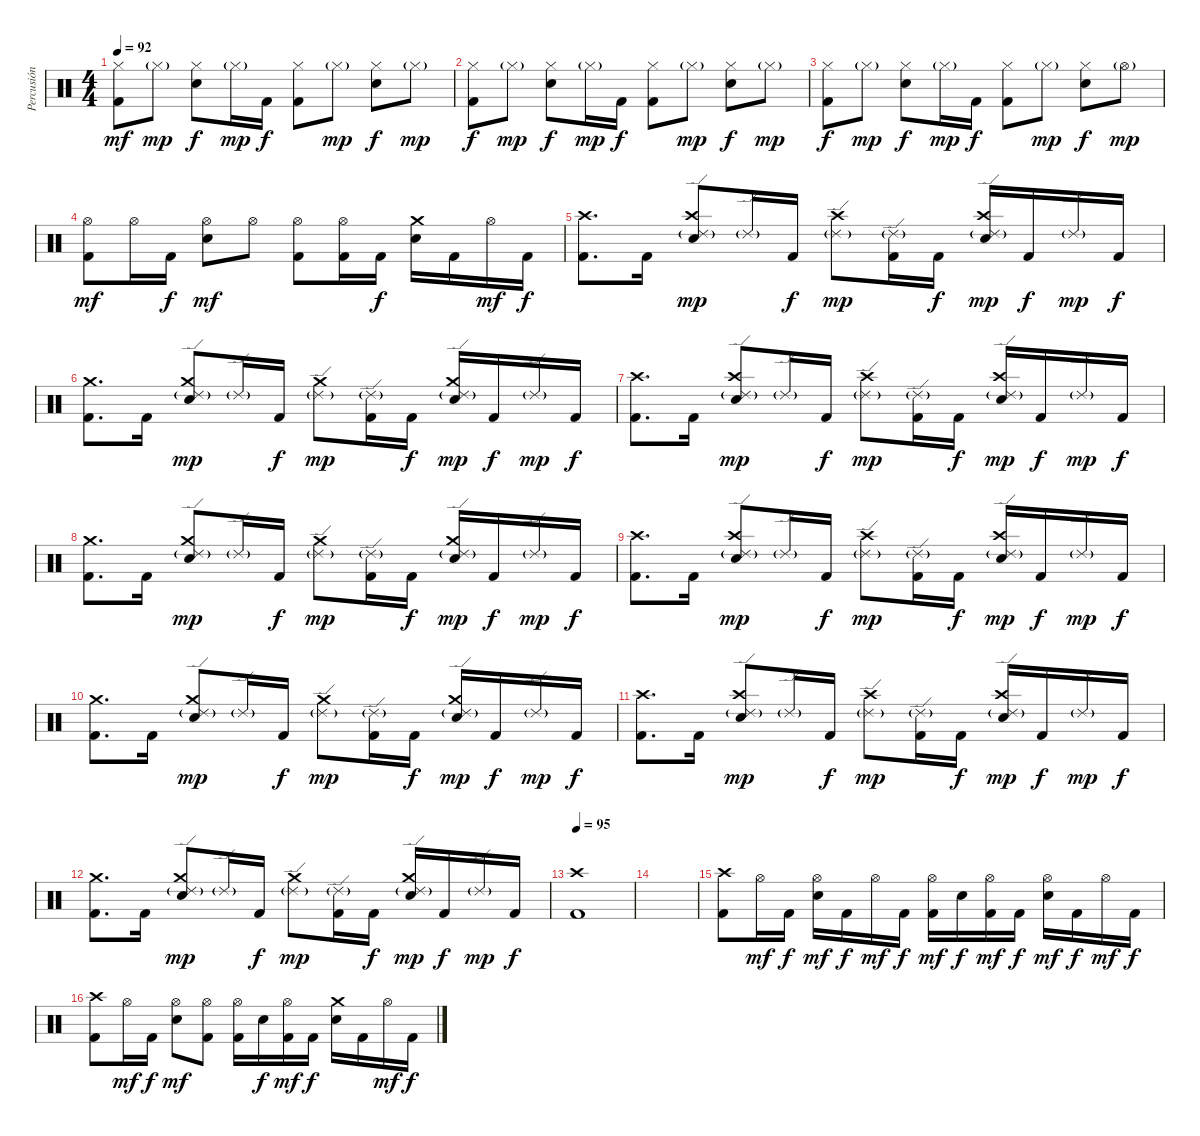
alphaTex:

\track ("Percusión" "Percusión") {instrument percussion}
\staff {score}
\articulation defaults
\ts (4 4)
\tempo 92
\clef neutral
\ks c
("Hi-Hat (closed)" "Kick (hit) 2").8{dy mf} "Hi-Hat (closed)"{g}.8{dy mp} ("Hi-Hat (closed)" "Snare (hit) 2").8{dy f} "Hi-Hat (closed)"{g}.16{dy mp} "Kick (hit) 2".16{dy f} ("Hi-Hat (closed)" "Kick (hit) 2").8 "Hi-Hat (closed)"{g}.8{dy mp} ("Hi-Hat (closed)" "Snare (hit) 2").8{dy f} "Hi-Hat (closed)"{g}.8{dy mp} |
("Hi-Hat (closed)" "Kick (hit) 2").8{dy f} "Hi-Hat (closed)"{g}.8{dy mp} ("Hi-Hat (closed)" "Snare (hit) 2").8{dy f} "Hi-Hat (closed)"{g}.16{dy mp} "Kick (hit) 2".16{dy f} ("Hi-Hat (closed)" "Kick (hit) 2").8 "Hi-Hat (closed)"{g}.8{dy mp} ("Hi-Hat (closed)" "Snare (hit) 2").8{dy f} "Hi-Hat (closed)"{g}.8{dy mp} |
("Hi-Hat (closed)" "Kick (hit) 2").8{dy f} "Hi-Hat (closed)"{g}.8{dy mp} ("Hi-Hat (closed)" "Snare (hit) 2").8{dy f} "Hi-Hat (closed)"{g}.16{dy mp} "Kick (hit) 2".16{dy f} ("Hi-Hat (closed)" "Kick (hit) 2").8 "Hi-Hat (closed)"{g}.8{dy mp} ("Hi-Hat (closed)" "Snare (hit) 2").8{dy f} "Hi-Hat (open)"{g}.8{dy mp} |
("Hi-Hat (open)" "Kick (hit) 2").8{dy mf} "Hi-Hat (open)".16 "Kick (hit) 2".16{dy f} ("Hi-Hat (open)" "Snare (hit) 2").8{dy mf} "Hi-Hat (open)".8 ("Hi-Hat (open)" "Kick (hit) 2").8 ("Hi-Hat (open)" "Kick (hit) 2").16 "Kick (hit) 2".16{dy f} ("Crash medium (hit)" "Snare (hit) 2").16 "Kick (hit) 2".16 "Hi-Hat (open)".16{dy mf} "Kick (hit) 2".16{dy f} |
("Crash high (hit)" "Kick (hit) 2").8{d} "Kick (hit) 2".16 ("Crash high (hit)" "Ride (edge) 2"{g} "Snare (hit) 2").8{dy mp} "Ride (edge) 2"{g}.16 "Kick (hit) 2".16{dy f} ("Crash high (hit)" "Ride (edge) 2"{g}).8{dy mp} ("Ride (edge) 2"{g} "Kick (hit) 2").16 "Kick (hit) 2".16{dy f} ("Crash high (hit)" "Ride (edge) 2"{g} "Snare (hit) 2").16{dy mp} "Kick (hit) 2".16{dy f} "Ride (edge) 2"{g}.16{dy mp} "Kick (hit) 2".16{dy f} |
("Crash medium (hit)" "Kick (hit) 2").8{d} "Kick (hit) 2".16 ("Crash medium (hit)" "Ride (edge) 2"{g} "Snare (hit) 2").8{dy mp} "Ride (edge) 2"{g}.16 "Kick (hit) 2".16{dy f} ("Crash medium (hit)" "Ride (edge) 2"{g}).8{dy mp} ("Ride (edge) 2"{g} "Kick (hit) 2").16 "Kick (hit) 2".16{dy f} ("Crash medium (hit)" "Ride (edge) 2"{g} "Snare (hit) 2").16{dy mp} "Kick (hit) 2".16{dy f} "Ride (edge) 2"{g}.16{dy mp} "Kick (hit) 2".16{dy f} |
("Crash high (hit)" "Kick (hit) 2").8{d} "Kick (hit) 2".16 ("Crash high (hit)" "Ride (edge) 2"{g} "Snare (hit) 2").8{dy mp} "Ride (edge) 2"{g}.16 "Kick (hit) 2".16{dy f} ("Crash high (hit)" "Ride (edge) 2"{g}).8{dy mp} ("Ride (edge) 2"{g} "Kick (hit) 2").16 "Kick (hit) 2".16{dy f} ("Crash high (hit)" "Ride (edge) 2"{g} "Snare (hit) 2").16{dy mp} "Kick (hit) 2".16{dy f} "Ride (edge) 2"{g}.16{dy mp} "Kick (hit) 2".16{dy f} |
("Crash medium (hit)" "Kick (hit) 2").8{d} "Kick (hit) 2".16 ("Crash medium (hit)" "Ride (edge) 2"{g} "Snare (hit) 2").8{dy mp} "Ride (edge) 2"{g}.16 "Kick (hit) 2".16{dy f} ("Crash medium (hit)" "Ride (edge) 2"{g}).8{dy mp} ("Ride (edge) 2"{g} "Kick (hit) 2").16 "Kick (hit) 2".16{dy f} ("Crash medium (hit)" "Ride (edge) 2"{g} "Snare (hit) 2").16{dy mp} "Kick (hit) 2".16{dy f} "Ride (edge) 2"{g}.16{dy mp} "Kick (hit) 2".16{dy f} |
("Crash high (hit)" "Kick (hit) 2").8{d} "Kick (hit) 2".16 ("Crash high (hit)" "Ride (edge) 2"{g} "Snare (hit) 2").8{dy mp} "Ride (edge) 2"{g}.16 "Kick (hit) 2".16{dy f} ("Crash high (hit)" "Ride (edge) 2"{g}).8{dy mp} ("Ride (edge) 2"{g} "Kick (hit) 2").16 "Kick (hit) 2".16{dy f} ("Crash high (hit)" "Ride (edge) 2"{g} "Snare (hit) 2").16{dy mp} "Kick (hit) 2".16{dy f} "Ride (edge) 2"{g}.16{dy mp} "Kick (hit) 2".16{dy f} |
("Crash medium (hit)" "Kick (hit) 2").8{d} "Kick (hit) 2".16 ("Crash medium (hit)" "Ride (edge) 2"{g} "Snare (hit) 2").8{dy mp} "Ride (edge) 2"{g}.16 "Kick (hit) 2".16{dy f} ("Crash medium (hit)" "Ride (edge) 2"{g}).8{dy mp} ("Ride (edge) 2"{g} "Kick (hit) 2").16 "Kick (hit) 2".16{dy f} ("Crash medium (hit)" "Ride (edge) 2"{g} "Snare (hit) 2").16{dy mp} "Kick (hit) 2".16{dy f} "Ride (edge) 2"{g}.16{dy mp} "Kick (hit) 2".16{dy f} |
("Crash high (hit)" "Kick (hit) 2").8{d} "Kick (hit) 2".16 ("Crash high (hit)" "Ride (edge) 2"{g} "Snare (hit) 2").8{dy mp} "Ride (edge) 2"{g}.16 "Kick (hit) 2".16{dy f} ("Crash high (hit)" "Ride (edge) 2"{g}).8{dy mp} ("Ride (edge) 2"{g} "Kick (hit) 2").16 "Kick (hit) 2".16{dy f} ("Crash high (hit)" "Ride (edge) 2"{g} "Snare (hit) 2").16{dy mp} "Kick (hit) 2".16{dy f} "Ride (edge) 2"{g}.16{dy mp} "Kick (hit) 2".16{dy f} |
("Crash medium (hit)" "Kick (hit) 2").8{d} "Kick (hit) 2".16 ("Crash medium (hit)" "Ride (edge) 2"{g} "Snare (hit) 2").8{dy mp} "Ride (edge) 2"{g}.16 "Kick (hit) 2".16{dy f} ("Crash medium (hit)" "Ride (edge) 2"{g}).8{dy mp} ("Ride (edge) 2"{g} "Kick (hit) 2").16 "Kick (hit) 2".16{dy f} ("Crash medium (hit)" "Ride (edge) 2"{g} "Snare (hit) 2").16{dy mp} "Kick (hit) 2".16{dy f} "Ride (edge) 2"{g}.16{dy mp} "Kick (hit) 2".16{dy f} |
\tempo 95
("Crash high (hit)" "Kick (hit) 2").1 |
|
("Crash high (hit)" "Kick (hit) 2").8 "Hi-Hat (open)".16{dy mf} "Kick (hit) 2".16{dy f} ("Hi-Hat (open)" "Snare (hit) 2").16{dy mf} "Kick (hit) 2".16{dy f} "Hi-Hat (open)".16{dy mf} "Kick (hit) 2".16{dy f} ("Hi-Hat (open)" "Kick (hit) 2").16{dy mf} "Snare (hit) 2".16{dy f} ("Hi-Hat (open)" "Kick (hit) 2").16{dy mf} "Kick (hit) 2".16{dy f} ("Hi-Hat (open)" "Snare (hit) 2").16{dy mf} "Kick (hit) 2".16{dy f} "Hi-Hat (open)".16{dy mf} "Kick (hit) 2".16{dy f} |
("Crash high (hit)" "Kick (hit) 2").8 "Hi-Hat (open)".16{dy mf} "Kick (hit) 2".16{dy f} ("Hi-Hat (open)" "Snare (hit) 2").8{dy mf} ("Hi-Hat (open)" "Kick (hit) 2").8 ("Hi-Hat (open)" "Kick (hit) 2").16 "Snare (hit) 2".16{dy f} ("Hi-Hat (open)" "Kick (hit) 2").16{dy mf} "Kick (hit) 2".16{dy f} ("Crash medium (hit)" "Snare (hit) 2").16 "Kick (hit) 2".16 "Hi-Hat (open)".16{dy mf} "Kick (hit) 2".16{dy f}
